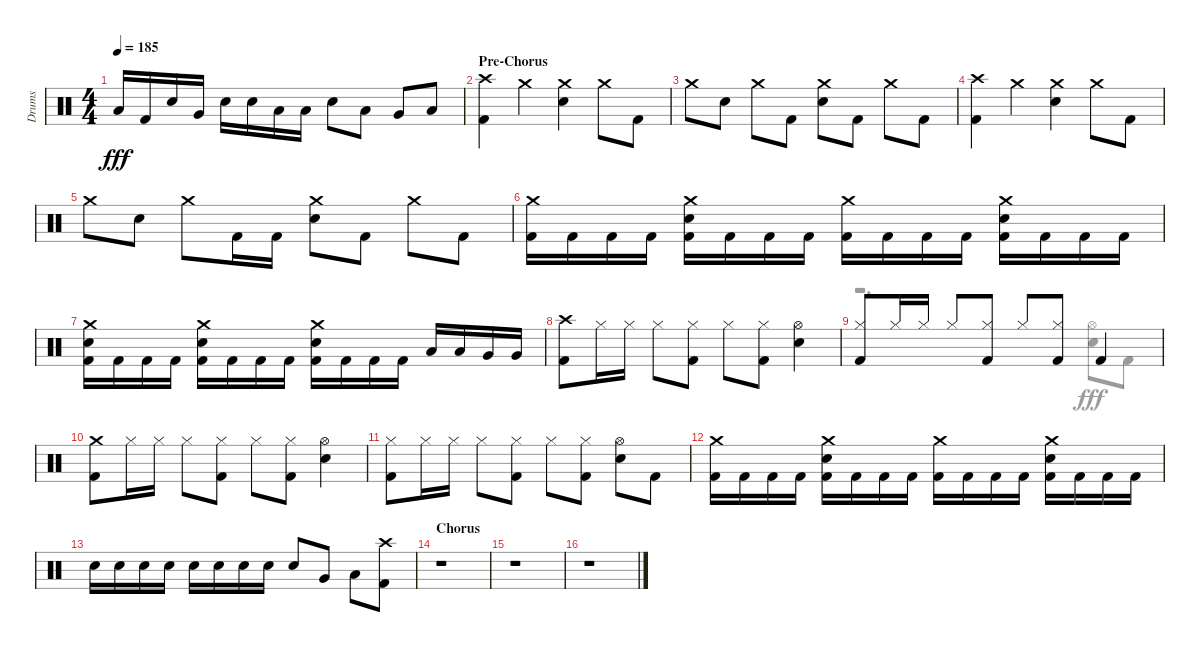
\track ("Drums" "Drums") {instrument percussion}
\staff {score}
\articulation defaults
\voice
\ts (4 4)
\tempo 185
\clef neutral
\ks aminor "Low Tom (hit)".16{dy fff} "Kick (hit) 2".16 "Snare (hit) 2".16 "Very Low Tom (hit)".16 "Snare (hit) 2".16 "Snare (hit) 2".16 "Low Floor Tom (hit)".16 "Low Floor Tom (hit)".16 "Snare (hit) 2".8 "Low Tom (hit)".8 "Very Low Tom (hit)".8 "Low Floor Tom (hit)".8
|
\section ("" "Pre-Chorus")
("Crash high (hit)" "Kick (hit) 2").4 "Crash medium (hit)".4 ("Snare (hit) 2" "Crash medium (hit)").4 "Crash medium (hit)".8 "Kick (hit) 2".8 |
"Crash medium (hit)".8 "Snare (hit) 2".8 "Crash medium (hit)".8 "Kick (hit) 2".8 ("Snare (hit) 2" "Crash medium (hit)").8 "Kick (hit) 2".8 "Crash medium (hit)".8 "Kick (hit) 2".8 |
("Crash high (hit)" "Kick (hit) 2").4 "Crash medium (hit)".4 ("Crash medium (hit)" "Snare (hit) 2").4 "Crash medium (hit)".8 "Kick (hit) 2".8 |
"Crash medium (hit)".8 "Snare (hit) 2".8 "Crash medium (hit)".8 "Kick (hit) 2".16 "Kick (hit) 2".16 ("Crash medium (hit)" "Snare (hit) 2").8 "Kick (hit) 2".8 "Crash medium (hit)".8 "Kick (hit) 2".8 |
("Crash medium (hit)" "Kick (hit) 2").16 "Kick (hit) 2".16 "Kick (hit) 2".16 "Kick (hit) 2".16 ("Snare (hit) 2" "Kick (hit) 2" "Crash medium (hit)").16 "Kick (hit) 2".16 "Kick (hit) 2".16 "Kick (hit) 2".16 ("Kick (hit) 2" "Crash medium (hit)").16 "Kick (hit) 2".16 "Kick (hit) 2".16 "Kick (hit) 2".16 ("Kick (hit) 2" "Crash medium (hit)" "Snare (hit) 2").16 "Kick (hit) 2".16 "Kick (hit) 2".16 "Kick (hit) 2".16 |
("Snare (hit) 2" "Kick (hit) 2" "Crash medium (hit)").16 "Kick (hit) 2".16 "Kick (hit) 2".16 "Kick (hit) 2".16 ("Kick (hit) 2" "Snare (hit) 2" "Crash medium (hit)").16 "Kick (hit) 2".16 "Kick (hit) 2".16 "Kick (hit) 2".16 ("Crash medium (hit)" "Snare (hit) 2" "Kick (hit) 2").16 "Kick (hit) 2".16 "Kick (hit) 2".16 "Kick (hit) 2".16 "Low Tom (hit)".16 "Low Tom (hit)".16 "Very Low Tom (hit)".16 "Very Low Tom (hit)".16 |
("Crash high (hit)" "Kick (hit) 2").8 "Hi-Hat (closed)".16 "Hi-Hat (closed)".16 "Hi-Hat (closed)".8 ("Kick (hit) 2" "Hi-Hat (closed)").8 "Hi-Hat (closed)".8 ("Kick (hit) 2" "Hi-Hat (closed)").8 ("Snare (hit) 2" "Hi-Hat (open)").4 |
("Hi-Hat (closed)" "Kick (hit) 2").8 "Hi-Hat (closed)".16 "Hi-Hat (closed)".16 "Hi-Hat (closed)".8 ("Hi-Hat (closed)" "Kick (hit) 2").8 "Hi-Hat (closed)".8 ("Kick (hit) 2" "Hi-Hat (closed)").8 "Kick (hit) 2".4 |
("Kick (hit) 2" "Crash medium (hit)").8 "Hi-Hat (closed)".16 "Hi-Hat (closed)".16 "Hi-Hat (closed)".8 ("Kick (hit) 2" "Hi-Hat (closed)").8 "Hi-Hat (closed)".8 ("Kick (hit) 2" "Hi-Hat (closed)").8 ("Snare (hit) 2" "Hi-Hat (open)").4 |
("Hi-Hat (closed)" "Kick (hit) 2").8 "Hi-Hat (closed)".16 "Hi-Hat (closed)".16 "Hi-Hat (closed)".8 ("Hi-Hat (closed)" "Kick (hit) 2").8 "Hi-Hat (closed)".8 ("Kick (hit) 2" "Hi-Hat (closed)").8 ("Snare (hit) 2" "Hi-Hat (open)").8 "Kick (hit) 2".8 |
("Crash medium (hit)" "Kick (hit) 2").16 "Kick (hit) 2".16 "Kick (hit) 2".16 "Kick (hit) 2".16 ("Kick (hit) 2" "Snare (hit) 2" "Crash medium (hit)").16 "Kick (hit) 2".16 "Kick (hit) 2".16 "Kick (hit) 2".16 ("Kick (hit) 2" "Crash medium (hit)").16 "Kick (hit) 2".16 "Kick (hit) 2".16 "Kick (hit) 2".16 ("Snare (hit) 2" "Crash medium (hit)" "Kick (hit) 2").16 "Kick (hit) 2".16 "Kick (hit) 2".16 "Kick (hit) 2".16 |
"Snare (hit) 2".16 "Snare (hit) 2".16 "Snare (hit) 2".16 "Snare (hit) 2".16 "Snare (hit) 2".16 "Snare (hit) 2".16 "Snare (hit) 2".16 "Snare (hit) 2".16 "Snare (hit) 2".8 "Very Low Tom (hit)".8 "Low Floor Tom (hit)".8 ("Crash high (hit)" "Kick (hit) 2").8 |
\section ("" "Chorus")
r.1 |
r.1 |
r.1
\voice
\clef neutral
\ottava regular
\simile none
\ks aminor
|
|
|
|
|
|
|
|
r.2{d} ("Hi-Hat (open)" "Snare (hit) 2").8 "Kick (hit) 2".8 |
|
|
|
|
|
|
